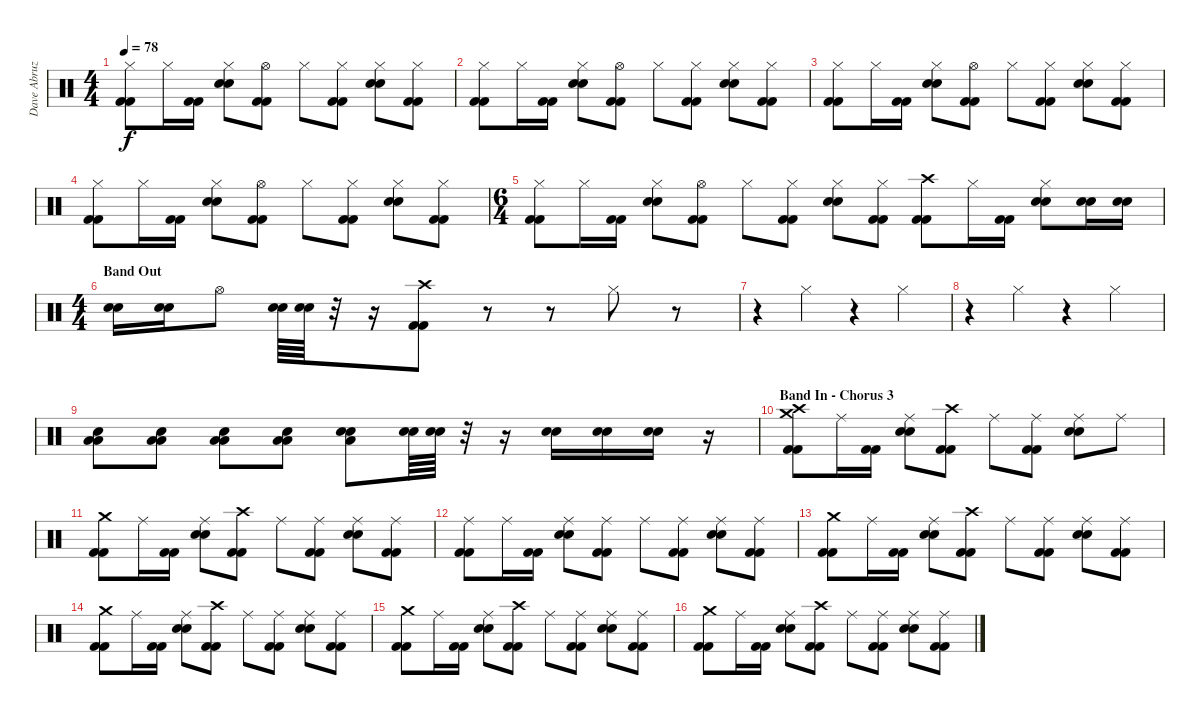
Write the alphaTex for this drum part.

\track ("Dave Abruzzese (live)" "Dave Abruz") {instrument percussion}
\staff {score}
\articulation defaults
\ts (4 4)
\tempo 78
\clef neutral
\ks c
("Hi-Hat (closed)" "Kick (hit) 2" "Kick (hit) 2").8{dy f} "Hi-Hat (closed)".16 ("Kick (hit) 2" "Kick (hit) 2").16 ("Hi-Hat (closed)" "Electric Snare (hit)" "Electric Snare (hit)").8 ("Hi-Hat (open)" "Kick (hit) 2" "Kick (hit) 2").8 "Hi-Hat (closed)".8 ("Hi-Hat (closed)" "Kick (hit) 2" "Kick (hit) 2").8 ("Hi-Hat (closed)" "Electric Snare (hit)" "Electric Snare (hit)").8 ("Hi-Hat (closed)" "Kick (hit) 2" "Kick (hit) 2").8 |
("Hi-Hat (closed)" "Kick (hit) 2" "Kick (hit) 2").8 "Hi-Hat (closed)".16 ("Kick (hit) 2" "Kick (hit) 2").16 ("Hi-Hat (closed)" "Electric Snare (hit)" "Electric Snare (hit)").8 ("Hi-Hat (open)" "Kick (hit) 2" "Kick (hit) 2").8 "Hi-Hat (closed)".8 ("Hi-Hat (closed)" "Kick (hit) 2" "Kick (hit) 2").8 ("Hi-Hat (closed)" "Electric Snare (hit)" "Electric Snare (hit)").8 ("Hi-Hat (closed)" "Kick (hit) 2" "Kick (hit) 2").8 |
("Hi-Hat (closed)" "Kick (hit) 2" "Kick (hit) 2").8 "Hi-Hat (closed)".16 ("Kick (hit) 2" "Kick (hit) 2").16 ("Hi-Hat (closed)" "Electric Snare (hit)" "Electric Snare (hit)").8 ("Hi-Hat (open)" "Kick (hit) 2" "Kick (hit) 2").8 "Hi-Hat (closed)".8 ("Hi-Hat (closed)" "Kick (hit) 2" "Kick (hit) 2").8 ("Hi-Hat (closed)" "Electric Snare (hit)" "Electric Snare (hit)").8 ("Hi-Hat (closed)" "Kick (hit) 2" "Kick (hit) 2").8 |
("Hi-Hat (closed)" "Kick (hit) 2" "Kick (hit) 2").8 "Hi-Hat (closed)".16 ("Kick (hit) 2" "Kick (hit) 2").16 ("Hi-Hat (closed)" "Electric Snare (hit)" "Electric Snare (hit)").8 ("Hi-Hat (open)" "Kick (hit) 2" "Kick (hit) 2").8 "Hi-Hat (closed)".8 ("Hi-Hat (closed)" "Kick (hit) 2" "Kick (hit) 2").8 ("Hi-Hat (closed)" "Electric Snare (hit)" "Electric Snare (hit)").8 ("Hi-Hat (closed)" "Kick (hit) 2" "Kick (hit) 2").8 |
\ts (6 4)
("Hi-Hat (closed)" "Kick (hit) 2" "Kick (hit) 2").8 "Hi-Hat (closed)".16 ("Kick (hit) 2" "Kick (hit) 2").16 ("Hi-Hat (closed)" "Electric Snare (hit)" "Electric Snare (hit)").8 ("Hi-Hat (open)" "Kick (hit) 2" "Kick (hit) 2").8 "Hi-Hat (closed)".8 ("Hi-Hat (closed)" "Kick (hit) 2" "Kick (hit) 2").8 ("Hi-Hat (closed)" "Electric Snare (hit)" "Electric Snare (hit)").8 ("Hi-Hat (closed)" "Kick (hit) 2" "Kick (hit) 2").8 ("Crash high (hit)" "Kick (hit) 2" "Kick (hit) 2").8 "Hi-Hat (closed)".16 ("Kick (hit) 2" "Kick (hit) 2").16 ("Hi-Hat (closed)" "Electric Snare (hit)" "Electric Snare (hit)").8 ("Electric Snare (hit)" "Electric Snare (hit)").16 ("Electric Snare (hit)" "Electric Snare (hit)").16 |
\ts (4 4)
\section ("" "Band Out")
("Electric Snare (hit)" "Electric Snare (hit)").16 ("Electric Snare (hit)" "Electric Snare (hit)").16 "Hi-Hat (open)".8 ("Electric Snare (hit)" "Electric Snare (hit)").64 ("Electric Snare (hit)" "Electric Snare (hit)").64 r.32 r.16 ("Crash high (hit)" "Kick (hit) 2" "Kick (hit) 2").8 r.8 r.8 "Hi-Hat (closed)".8 r.8 |
r.4 "Hi-Hat (closed)".4 r.4 "Hi-Hat (closed)".4 |
r.4 "Hi-Hat (closed)".4 r.4 "Hi-Hat (closed)".4 |
("Low Tom (hit)" "Low Tom (hit)" "Electric Snare (hit)").8 ("Low Tom (hit)" "Low Tom (hit)" "Electric Snare (hit)").8 ("Low Tom (hit)" "Low Tom (hit)" "Electric Snare (hit)").8 ("Low Tom (hit)" "Low Tom (hit)" "Electric Snare (hit)").8 ("Low Tom (hit)" "Electric Snare (hit)" "Electric Snare (hit)").8 ("Electric Snare (hit)" "Electric Snare (hit)").64 ("Electric Snare (hit)" "Electric Snare (hit)").64 r.32 r.16 ("Electric Snare (hit)" "Electric Snare (hit)").16 ("Electric Snare (hit)" "Electric Snare (hit)").16 ("Electric Snare (hit)" "Electric Snare (hit)").16 r.16 |
\section ("" "Band In - Chorus 3")
("Crash medium (hit)" "Crash high (hit)" "Kick (hit) 2" "Kick (hit) 2").8 "Ride (middle)".16 ("Kick (hit) 2" "Kick (hit) 2").16 ("Ride (middle)" "Electric Snare (hit)" "Electric Snare (hit)").8 ("Crash high (hit)" "Kick (hit) 2" "Kick (hit) 2").8 "Ride (middle)".8 ("Ride (middle)" "Kick (hit) 2" "Kick (hit) 2").8 ("Ride (middle)" "Electric Snare (hit)" "Electric Snare (hit)").8 "Ride (middle)".8 |
("Crash medium (hit)" "Kick (hit) 2" "Kick (hit) 2").8 "Ride (middle)".16 ("Kick (hit) 2" "Kick (hit) 2").16 ("Ride (middle)" "Electric Snare (hit)" "Electric Snare (hit)").8 ("Crash high (hit)" "Kick (hit) 2" "Kick (hit) 2").8 "Ride (middle)".8 ("Ride (middle)" "Kick (hit) 2" "Kick (hit) 2").8 ("Ride (middle)" "Electric Snare (hit)" "Electric Snare (hit)").8 ("Ride (middle)" "Kick (hit) 2" "Kick (hit) 2").8 |
("Ride (middle)" "Kick (hit) 2" "Kick (hit) 2").8 "Ride (middle)".16 ("Kick (hit) 2" "Kick (hit) 2").16 ("Ride (middle)" "Electric Snare (hit)" "Electric Snare (hit)").8 ("Ride (middle)" "Kick (hit) 2" "Kick (hit) 2").8 "Ride (middle)".8 ("Ride (middle)" "Kick (hit) 2" "Kick (hit) 2").8 ("Ride (middle)" "Electric Snare (hit)" "Electric Snare (hit)").8 ("Ride (middle)" "Kick (hit) 2" "Kick (hit) 2").8 |
("Crash medium (hit)" "Kick (hit) 2" "Kick (hit) 2").8 "Ride (middle)".16 ("Kick (hit) 2" "Kick (hit) 2").16 ("Ride (middle)" "Electric Snare (hit)" "Electric Snare (hit)").8 ("Crash high (hit)" "Kick (hit) 2" "Kick (hit) 2").8 "Ride (middle)".8 ("Ride (middle)" "Kick (hit) 2" "Kick (hit) 2").8 ("Ride (middle)" "Electric Snare (hit)" "Electric Snare (hit)").8 ("Ride (middle)" "Kick (hit) 2" "Kick (hit) 2").8 |
("Crash medium (hit)" "Kick (hit) 2" "Kick (hit) 2").8 "Ride (middle)".16 ("Kick (hit) 2" "Kick (hit) 2").16 ("Ride (middle)" "Electric Snare (hit)" "Electric Snare (hit)").8 ("Crash high (hit)" "Kick (hit) 2" "Kick (hit) 2").8 "Ride (middle)".8 ("Ride (middle)" "Kick (hit) 2" "Kick (hit) 2").8 ("Ride (middle)" "Electric Snare (hit)" "Electric Snare (hit)").8 ("Ride (middle)" "Kick (hit) 2" "Kick (hit) 2").8 |
("Crash medium (hit)" "Kick (hit) 2" "Kick (hit) 2").8 "Ride (middle)".16 ("Kick (hit) 2" "Kick (hit) 2").16 ("Ride (middle)" "Electric Snare (hit)" "Electric Snare (hit)").8 ("Crash high (hit)" "Kick (hit) 2" "Kick (hit) 2").8 "Ride (middle)".8 ("Ride (middle)" "Kick (hit) 2" "Kick (hit) 2").8 ("Ride (middle)" "Electric Snare (hit)" "Electric Snare (hit)").8 ("Ride (middle)" "Kick (hit) 2" "Kick (hit) 2").8 |
("Crash medium (hit)" "Kick (hit) 2" "Kick (hit) 2").8 "Ride (middle)".16 ("Kick (hit) 2" "Kick (hit) 2").16 ("Ride (middle)" "Electric Snare (hit)" "Electric Snare (hit)").8 ("Crash high (hit)" "Kick (hit) 2" "Kick (hit) 2").8 "Ride (middle)".8 ("Ride (middle)" "Kick (hit) 2" "Kick (hit) 2").8 ("Ride (middle)" "Electric Snare (hit)" "Electric Snare (hit)").8 ("Ride (middle)" "Kick (hit) 2" "Kick (hit) 2").8
